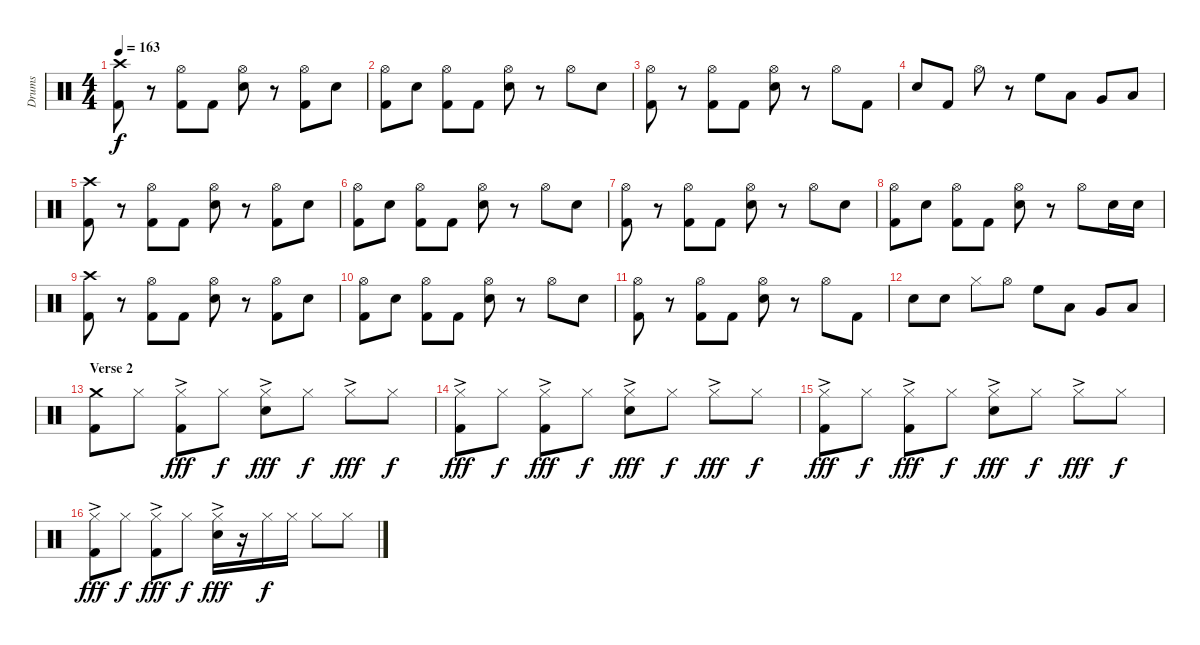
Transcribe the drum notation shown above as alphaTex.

\track ("Drums" "Drums") {instrument percussion}
\staff {score}
\articulation defaults
\ts (4 4)
\tempo 163
\clef neutral
\ks c
("Crash high (hit)" "Kick (hit) 2").8{dy f} r.8 ("Hi-Hat (open)" "Kick (hit) 2").8 "Kick (hit) 2".8 ("Hi-Hat (open)" "Snare (hit) 2").8 r.8 ("Hi-Hat (open)" "Kick (hit) 2").8 "Snare (hit) 2".8 |
("Hi-Hat (open)" "Kick (hit) 2").8 "Snare (hit) 2".8 ("Hi-Hat (open)" "Kick (hit) 2").8 "Kick (hit) 2".8 ("Hi-Hat (open)" "Snare (hit) 2").8 r.8 "Hi-Hat (open)".8 "Snare (hit) 2".8 |
("Hi-Hat (open)" "Kick (hit) 2").8 r.8 ("Hi-Hat (open)" "Kick (hit) 2").8 "Kick (hit) 2".8 ("Hi-Hat (open)" "Snare (hit) 2").8 r.8 "Hi-Hat (open)".8 "Kick (hit) 2".8 |
"Snare (hit) 2".8 "Kick (hit) 2".8 "Hi-Hat (open)".8 r.8 "High Floor Tom (hit)".8 "Low Tom (hit)".8 "Very Low Tom (hit)".8 "Low Floor Tom (hit)".8 |
("Crash high (hit)" "Kick (hit) 2").8 r.8 ("Hi-Hat (open)" "Kick (hit) 2").8 "Kick (hit) 2".8 ("Hi-Hat (open)" "Snare (hit) 2").8 r.8 ("Hi-Hat (open)" "Kick (hit) 2").8 "Snare (hit) 2".8 |
("Hi-Hat (open)" "Kick (hit) 2").8 "Snare (hit) 2".8 ("Hi-Hat (open)" "Kick (hit) 2").8 "Kick (hit) 2".8 ("Hi-Hat (open)" "Snare (hit) 2").8 r.8 "Hi-Hat (open)".8 "Snare (hit) 2".8 |
("Hi-Hat (open)" "Kick (hit) 2").8 r.8 ("Hi-Hat (open)" "Kick (hit) 2").8 "Kick (hit) 2".8 ("Hi-Hat (open)" "Snare (hit) 2").8 r.8 "Hi-Hat (open)".8 "Snare (hit) 2".8 |
("Hi-Hat (open)" "Kick (hit) 2").8 "Snare (hit) 2".8 ("Hi-Hat (open)" "Kick (hit) 2").8 "Kick (hit) 2".8 ("Hi-Hat (open)" "Snare (hit) 2").8 r.8 "Hi-Hat (open)".8 "Snare (hit) 2".16 "Snare (hit) 2".16 |
("Crash high (hit)" "Kick (hit) 2").8 r.8 ("Hi-Hat (open)" "Kick (hit) 2").8 "Kick (hit) 2".8 ("Hi-Hat (open)" "Snare (hit) 2").8 r.8 ("Hi-Hat (open)" "Kick (hit) 2").8 "Snare (hit) 2".8 |
("Hi-Hat (open)" "Kick (hit) 2").8 "Snare (hit) 2".8 ("Hi-Hat (open)" "Kick (hit) 2").8 "Kick (hit) 2".8 ("Hi-Hat (open)" "Snare (hit) 2").8 r.8 "Hi-Hat (open)".8 "Snare (hit) 2".8 |
("Hi-Hat (open)" "Kick (hit) 2").8 r.8 ("Hi-Hat (open)" "Kick (hit) 2").8 "Kick (hit) 2".8 ("Hi-Hat (open)" "Snare (hit) 2").8 r.8 "Hi-Hat (open)".8 "Kick (hit) 2".8 |
"Snare (hit) 2".8 "Snare (hit) 2".8 "Hi-Hat (closed)".8 "Hi-Hat (open)".8 "High Floor Tom (hit)".8 "Low Tom (hit)".8 "Very Low Tom (hit)".8 "Low Floor Tom (hit)".8 |
\section ("" "Verse 2")
("Crash medium (hit)" "Kick (hit) 2").8 "Hi-Hat (closed)".8 ("Hi-Hat (closed)"{ac} "Kick (hit) 2").8{dy fff} "Hi-Hat (closed)".8{dy f} ("Hi-Hat (closed)"{ac} "Snare (hit) 2").8{dy fff} "Hi-Hat (closed)".8{dy f} "Hi-Hat (closed)"{ac}.8{dy fff} "Hi-Hat (closed)".8{dy f} |
("Hi-Hat (closed)"{ac} "Kick (hit) 2").8{dy fff} "Hi-Hat (closed)".8{dy f} ("Hi-Hat (closed)"{ac} "Kick (hit) 2").8{dy fff} "Hi-Hat (closed)".8{dy f} ("Hi-Hat (closed)"{ac} "Snare (hit) 2").8{dy fff} "Hi-Hat (closed)".8{dy f} "Hi-Hat (closed)"{ac}.8{dy fff} "Hi-Hat (closed)".8{dy f} |
("Hi-Hat (closed)"{ac} "Kick (hit) 2").8{dy fff} "Hi-Hat (closed)".8{dy f} ("Hi-Hat (closed)"{ac} "Kick (hit) 2").8{dy fff} "Hi-Hat (closed)".8{dy f} ("Hi-Hat (closed)"{ac} "Snare (hit) 2").8{dy fff} "Hi-Hat (closed)".8{dy f} "Hi-Hat (closed)"{ac}.8{dy fff} "Hi-Hat (closed)".8{dy f} |
("Hi-Hat (closed)"{ac} "Kick (hit) 2").8{dy fff} "Hi-Hat (closed)".8{dy f} ("Hi-Hat (closed)"{ac} "Kick (hit) 2").8{dy fff} "Hi-Hat (closed)".8{dy f} ("Hi-Hat (closed)"{ac} "Snare (hit) 2").16{dy fff} r.16 "Hi-Hat (closed)".16{dy f} "Hi-Hat (closed)".16 "Hi-Hat (closed)".8 "Hi-Hat (closed)".8
